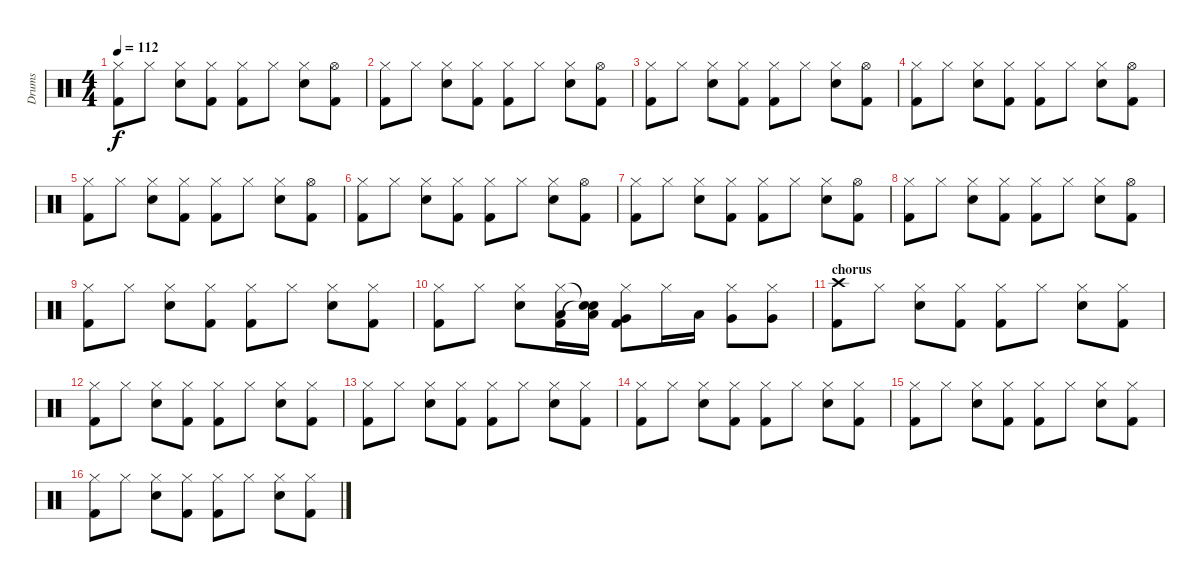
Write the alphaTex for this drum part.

\track ("Drums" "Drums") {instrument percussion}
\staff {score}
\articulation defaults
\ts (4 4)
\tempo 112
\clef neutral
\ks c
("Hi-Hat (closed)" "Kick (hit) 2").8{dy f} "Hi-Hat (closed)".8 ("Hi-Hat (closed)" "Electric Snare (hit)").8 ("Hi-Hat (closed)" "Kick (hit) 2").8 ("Hi-Hat (closed)" "Kick (hit) 2").8 "Hi-Hat (closed)".8 ("Hi-Hat (closed)" "Electric Snare (hit)").8 ("Hi-Hat (open)" "Kick (hit) 2").8 |
("Hi-Hat (closed)" "Kick (hit) 2").8 "Hi-Hat (closed)".8 ("Hi-Hat (closed)" "Electric Snare (hit)").8 ("Hi-Hat (closed)" "Kick (hit) 2").8 ("Hi-Hat (closed)" "Kick (hit) 2").8 "Hi-Hat (closed)".8 ("Hi-Hat (closed)" "Electric Snare (hit)").8 ("Hi-Hat (open)" "Kick (hit) 2").8 |
("Hi-Hat (closed)" "Kick (hit) 2").8 "Hi-Hat (closed)".8 ("Hi-Hat (closed)" "Electric Snare (hit)").8 ("Hi-Hat (closed)" "Kick (hit) 2").8 ("Hi-Hat (closed)" "Kick (hit) 2").8 "Hi-Hat (closed)".8 ("Hi-Hat (closed)" "Electric Snare (hit)").8 ("Hi-Hat (open)" "Kick (hit) 2").8 |
("Hi-Hat (closed)" "Kick (hit) 2").8 "Hi-Hat (closed)".8 ("Hi-Hat (closed)" "Electric Snare (hit)").8 ("Hi-Hat (closed)" "Kick (hit) 2").8 ("Hi-Hat (closed)" "Kick (hit) 2").8 "Hi-Hat (closed)".8 ("Hi-Hat (closed)" "Electric Snare (hit)").8 ("Hi-Hat (open)" "Kick (hit) 2").8 |
("Hi-Hat (closed)" "Kick (hit) 2").8 "Hi-Hat (closed)".8 ("Hi-Hat (closed)" "Electric Snare (hit)").8 ("Hi-Hat (closed)" "Kick (hit) 2").8 ("Hi-Hat (closed)" "Kick (hit) 2").8 "Hi-Hat (closed)".8 ("Hi-Hat (closed)" "Electric Snare (hit)").8 ("Hi-Hat (open)" "Kick (hit) 2").8 |
("Hi-Hat (closed)" "Kick (hit) 2").8 "Hi-Hat (closed)".8 ("Hi-Hat (closed)" "Electric Snare (hit)").8 ("Hi-Hat (closed)" "Kick (hit) 2").8 ("Hi-Hat (closed)" "Kick (hit) 2").8 "Hi-Hat (closed)".8 ("Hi-Hat (closed)" "Electric Snare (hit)").8 ("Hi-Hat (open)" "Kick (hit) 2").8 |
("Hi-Hat (closed)" "Kick (hit) 2").8 "Hi-Hat (closed)".8 ("Hi-Hat (closed)" "Electric Snare (hit)").8 ("Hi-Hat (closed)" "Kick (hit) 2").8 ("Hi-Hat (closed)" "Kick (hit) 2").8 "Hi-Hat (closed)".8 ("Hi-Hat (closed)" "Electric Snare (hit)").8 ("Hi-Hat (open)" "Kick (hit) 2").8 |
("Hi-Hat (closed)" "Kick (hit) 2").8 "Hi-Hat (closed)".8 ("Hi-Hat (closed)" "Electric Snare (hit)").8 ("Hi-Hat (closed)" "Kick (hit) 2").8 ("Hi-Hat (closed)" "Kick (hit) 2").8 "Hi-Hat (closed)".8 ("Hi-Hat (closed)" "Electric Snare (hit)").8 ("Hi-Hat (open)" "Kick (hit) 2").8 |
("Hi-Hat (closed)" "Kick (hit) 2").8 "Hi-Hat (closed)".8 ("Hi-Hat (closed)" "Electric Snare (hit)").8 ("Hi-Hat (closed)" "Kick (hit) 2").8 ("Hi-Hat (closed)" "Kick (hit) 2").8 "Hi-Hat (closed)".8 ("Hi-Hat (closed)" "Electric Snare (hit)").8 ("Hi-Hat (closed)" "Kick (hit) 2").8 |
("Hi-Hat (closed)" "Kick (hit) 2").8 "Hi-Hat (closed)".8 ("Hi-Hat (closed)" "Electric Snare (hit)").8 ("Hi-Hat (closed)" "Low Tom (hit)" "Kick (hit) 2").16 ("Snare (hit)"{t} "Low Tom (hit)" "Snare (hit)"{t}).16 ("Hi-Hat (closed)" "Very Low Tom (hit)" "Kick (hit) 2").8 "Hi-Hat (closed)".16 "Low Tom (hit)".16 ("Hi-Hat (closed)" "Very Low Tom (hit)").8 ("Hi-Hat (closed)" "Very Low Tom (hit)").8 |
\section ("" "chorus")
("Crash high (hit)" "Kick (hit) 2").8 "Hi-Hat (closed)".8 ("Hi-Hat (closed)" "Electric Snare (hit)").8 ("Hi-Hat (closed)" "Kick (hit) 2").8 ("Hi-Hat (closed)" "Kick (hit) 2").8 "Hi-Hat (closed)".8 ("Hi-Hat (closed)" "Electric Snare (hit)").8 ("Hi-Hat (closed)" "Kick (hit) 2").8 |
("Hi-Hat (closed)" "Kick (hit) 2").8 "Hi-Hat (closed)".8 ("Hi-Hat (closed)" "Electric Snare (hit)").8 ("Hi-Hat (closed)" "Kick (hit) 2").8 ("Hi-Hat (closed)" "Kick (hit) 2").8 "Hi-Hat (closed)".8 ("Hi-Hat (closed)" "Electric Snare (hit)").8 ("Hi-Hat (closed)" "Kick (hit) 2").8 |
("Hi-Hat (closed)" "Kick (hit) 2").8 "Hi-Hat (closed)".8 ("Hi-Hat (closed)" "Electric Snare (hit)").8 ("Hi-Hat (closed)" "Kick (hit) 2").8 ("Hi-Hat (closed)" "Kick (hit) 2").8 "Hi-Hat (closed)".8 ("Hi-Hat (closed)" "Electric Snare (hit)").8 ("Hi-Hat (closed)" "Kick (hit) 2").8 |
("Hi-Hat (closed)" "Kick (hit) 2").8 "Hi-Hat (closed)".8 ("Hi-Hat (closed)" "Electric Snare (hit)").8 ("Hi-Hat (closed)" "Kick (hit) 2").8 ("Hi-Hat (closed)" "Kick (hit) 2").8 "Hi-Hat (closed)".8 ("Hi-Hat (closed)" "Electric Snare (hit)").8 ("Hi-Hat (closed)" "Kick (hit) 2").8 |
("Hi-Hat (closed)" "Kick (hit) 2").8 "Hi-Hat (closed)".8 ("Hi-Hat (closed)" "Electric Snare (hit)").8 ("Hi-Hat (closed)" "Kick (hit) 2").8 ("Hi-Hat (closed)" "Kick (hit) 2").8 "Hi-Hat (closed)".8 ("Hi-Hat (closed)" "Electric Snare (hit)").8 ("Hi-Hat (closed)" "Kick (hit) 2").8 |
("Hi-Hat (closed)" "Kick (hit) 2").8 "Hi-Hat (closed)".8 ("Hi-Hat (closed)" "Electric Snare (hit)").8 ("Hi-Hat (closed)" "Kick (hit) 2").8 ("Hi-Hat (closed)" "Kick (hit) 2").8 "Hi-Hat (closed)".8 ("Hi-Hat (closed)" "Electric Snare (hit)").8 ("Hi-Hat (closed)" "Kick (hit) 2").8
